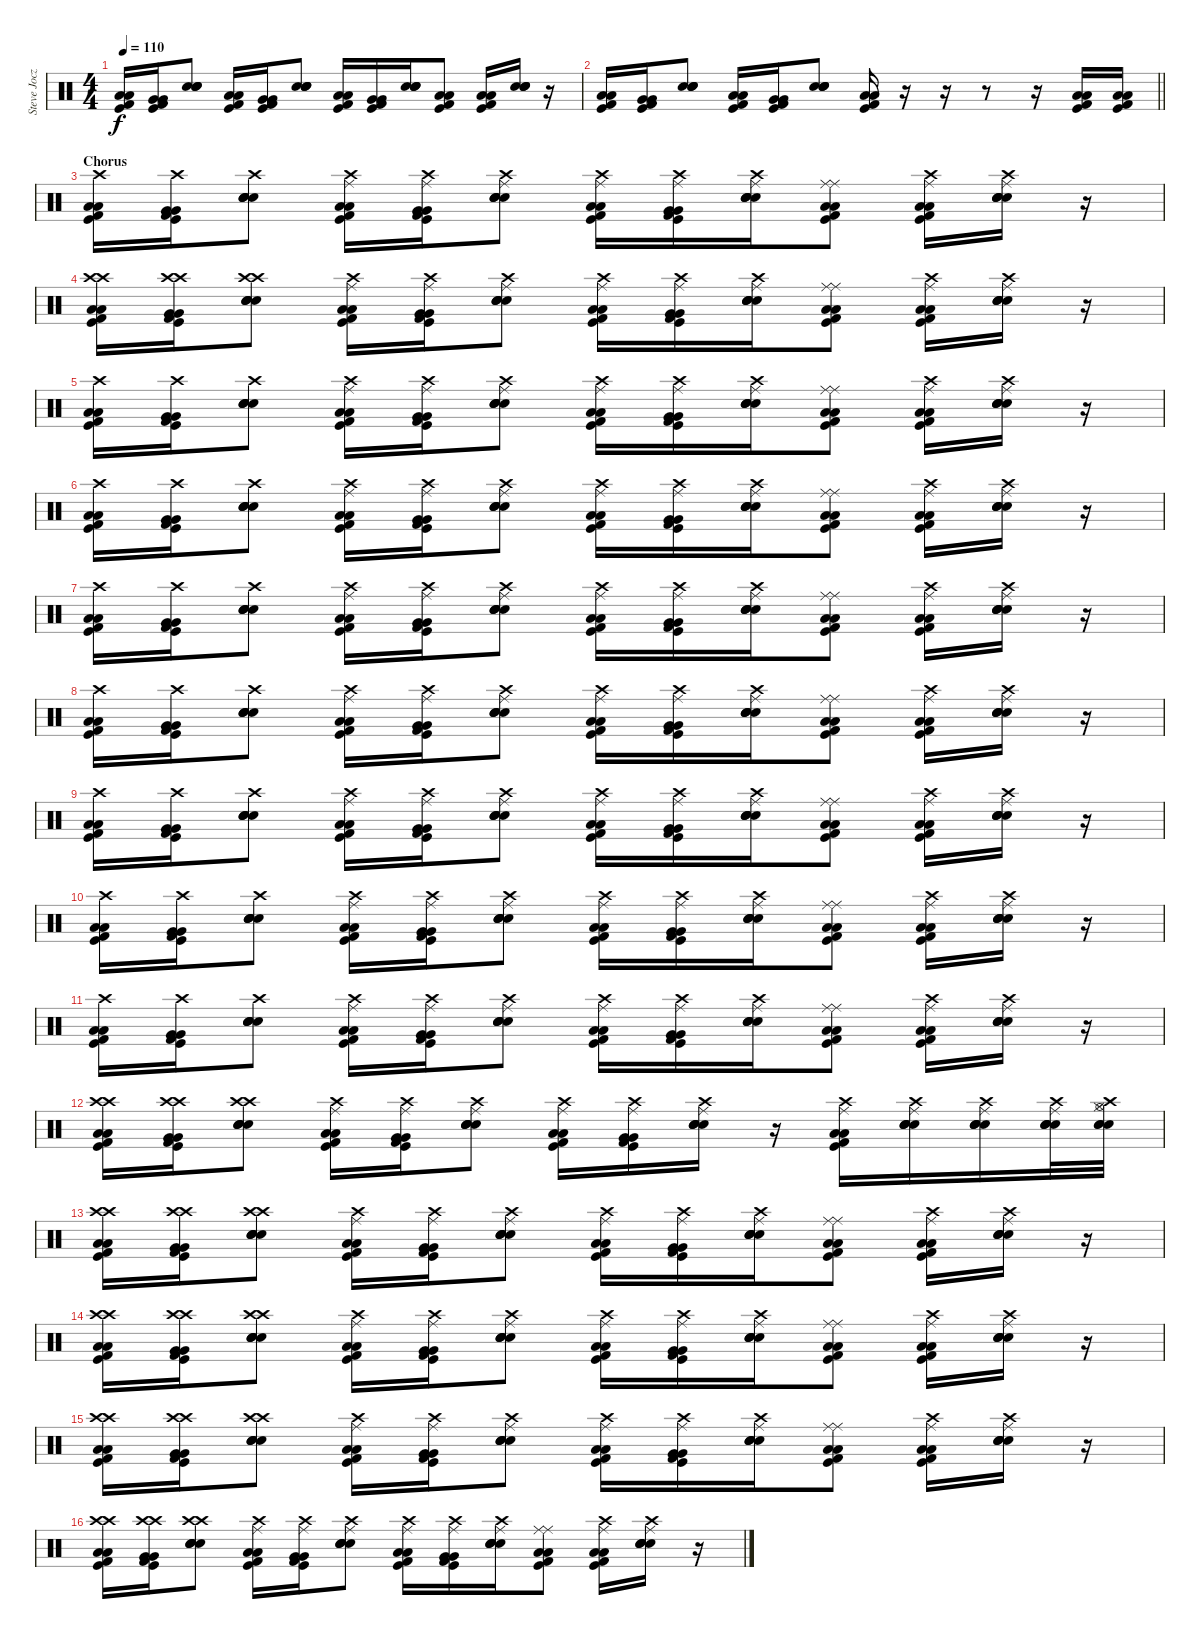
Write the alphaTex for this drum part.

\track ("Steve Jocz" "Steve Jocz") {instrument percussion}
\staff {score}
\articulation defaults
\ts (4 4)
\tempo 110
\clef neutral
\ks c
("Low Floor Tom (hit)" "Low Floor Tom (hit)" "Kick (hit)" "Kick (hit) 2").16{dy f} ("Very Low Tom (hit)" "Very Low Tom (hit)" "Kick (hit)" "Kick (hit) 2").16 ("Snare (hit) 2" "Snare (hit) 2" "Electric Snare (hit)" "Electric Snare (hit)").8 ("Low Floor Tom (hit)" "Low Floor Tom (hit)" "Kick (hit)" "Kick (hit) 2").16 ("Very Low Tom (hit)" "Very Low Tom (hit)" "Kick (hit)" "Kick (hit) 2").16 ("Snare (hit) 2" "Snare (hit) 2" "Electric Snare (hit)" "Electric Snare (hit)").8 ("Low Floor Tom (hit)" "Low Floor Tom (hit)" "Kick (hit)" "Kick (hit) 2").16 ("Very Low Tom (hit)" "Very Low Tom (hit)" "Kick (hit)" "Kick (hit) 2").16 ("Snare (hit) 2" "Snare (hit) 2" "Electric Snare (hit)" "Electric Snare (hit)").16 ("Low Floor Tom (hit)" "Low Floor Tom (hit)" "Kick (hit)" "Kick (hit) 2").8 ("Low Floor Tom (hit)" "Low Floor Tom (hit)" "Kick (hit)" "Kick (hit) 2").16 ("Snare (hit) 2" "Snare (hit) 2" "Electric Snare (hit)" "Electric Snare (hit)").16 r.16 |
\barLineRight lightlight
("Low Floor Tom (hit)" "Low Floor Tom (hit)" "Kick (hit)" "Kick (hit) 2").16 ("Very Low Tom (hit)" "Very Low Tom (hit)" "Kick (hit)" "Kick (hit) 2").16 ("Snare (hit) 2" "Snare (hit) 2" "Electric Snare (hit)" "Electric Snare (hit)").8 ("Low Floor Tom (hit)" "Low Floor Tom (hit)" "Kick (hit)" "Kick (hit) 2").16 ("Very Low Tom (hit)" "Very Low Tom (hit)" "Kick (hit)" "Kick (hit) 2").16 ("Snare (hit) 2" "Snare (hit) 2" "Electric Snare (hit)" "Electric Snare (hit)").8 ("Low Floor Tom (hit)" "Low Floor Tom (hit)" "Kick (hit)" "Kick (hit) 2").16 r.16 r.16 r.8 r.16 ("Low Floor Tom (hit)" "Low Floor Tom (hit)" "Kick (hit)" "Kick (hit) 2").16 ("Low Floor Tom (hit)" "Low Floor Tom (hit)" "Kick (hit)" "Kick (hit) 2").16 |
\section ("" "Chorus")
("Low Floor Tom (hit)" "Crash high (hit)" "Low Floor Tom (hit)" "Kick (hit)" "Kick (hit) 2").16 ("Very Low Tom (hit)" "Crash high (hit)" "Very Low Tom (hit)" "Kick (hit)" "Kick (hit) 2").16 ("Snare (hit) 2" "Crash high (hit)" "Snare (hit) 2" "Electric Snare (hit)" "Electric Snare (hit)").8 ("Low Floor Tom (hit)" "Ride (middle)" "Low Floor Tom (hit)" "Kick (hit)" "Crash high (hit)" "Kick (hit) 2").16 ("Very Low Tom (hit)" "Ride (middle)" "Very Low Tom (hit)" "Kick (hit)" "Crash high (hit)" "Kick (hit) 2").16 ("Snare (hit) 2" "Ride (middle)" "Snare (hit) 2" "Electric Snare (hit)" "Crash high (hit)" "Electric Snare (hit)").8 ("Low Floor Tom (hit)" "Ride (middle)" "Low Floor Tom (hit)" "Kick (hit)" "Crash high (hit)" "Kick (hit) 2").16 ("Very Low Tom (hit)" "Ride (middle)" "Very Low Tom (hit)" "Kick (hit)" "Crash high (hit)" "Kick (hit) 2").16 ("Snare (hit) 2" "Ride (middle)" "Snare (hit) 2" "Electric Snare (hit)" "Crash high (hit)" "Electric Snare (hit)").16 ("Low Floor Tom (hit)" "Ride (middle)" "Low Floor Tom (hit)" "Kick (hit)" "Ride (middle)" "Kick (hit) 2").8 ("Low Floor Tom (hit)" "Ride (middle)" "Low Floor Tom (hit)" "Kick (hit)" "Crash high (hit)" "Kick (hit) 2").16 ("Snare (hit) 2" "Ride (middle)" "Snare (hit) 2" "Electric Snare (hit)" "Crash high (hit)" "Electric Snare (hit)").16 r.16 |
("Low Floor Tom (hit)" "Crash high (hit)" "Low Floor Tom (hit)" "Kick (hit)" "Crash high (hit)" "Kick (hit) 2").16 ("Very Low Tom (hit)" "Crash high (hit)" "Very Low Tom (hit)" "Kick (hit)" "Crash high (hit)" "Kick (hit) 2").16 ("Snare (hit) 2" "Crash high (hit)" "Snare (hit) 2" "Electric Snare (hit)" "Crash high (hit)" "Electric Snare (hit)").8 ("Low Floor Tom (hit)" "Ride (middle)" "Low Floor Tom (hit)" "Kick (hit)" "Crash high (hit)" "Kick (hit) 2").16 ("Very Low Tom (hit)" "Ride (middle)" "Very Low Tom (hit)" "Kick (hit)" "Crash high (hit)" "Kick (hit) 2").16 ("Snare (hit) 2" "Ride (middle)" "Snare (hit) 2" "Electric Snare (hit)" "Crash high (hit)" "Electric Snare (hit)").8 ("Low Floor Tom (hit)" "Ride (middle)" "Low Floor Tom (hit)" "Kick (hit)" "Crash high (hit)" "Kick (hit) 2").16 ("Very Low Tom (hit)" "Ride (middle)" "Very Low Tom (hit)" "Kick (hit)" "Crash high (hit)" "Kick (hit) 2").16 ("Snare (hit) 2" "Ride (middle)" "Snare (hit) 2" "Electric Snare (hit)" "Crash high (hit)" "Electric Snare (hit)").16 ("Low Floor Tom (hit)" "Ride (middle)" "Low Floor Tom (hit)" "Kick (hit)" "Ride (middle)" "Kick (hit) 2").8 ("Low Floor Tom (hit)" "Ride (middle)" "Low Floor Tom (hit)" "Kick (hit)" "Crash high (hit)" "Kick (hit) 2").16 ("Snare (hit) 2" "Ride (middle)" "Snare (hit) 2" "Electric Snare (hit)" "Crash high (hit)" "Electric Snare (hit)").16 r.16 |
("Low Floor Tom (hit)" "Crash high (hit)" "Low Floor Tom (hit)" "Kick (hit)" "Kick (hit) 2").16 ("Very Low Tom (hit)" "Crash high (hit)" "Very Low Tom (hit)" "Kick (hit)" "Kick (hit) 2").16 ("Snare (hit) 2" "Crash high (hit)" "Snare (hit) 2" "Electric Snare (hit)" "Electric Snare (hit)").8 ("Low Floor Tom (hit)" "Ride (middle)" "Low Floor Tom (hit)" "Kick (hit)" "Crash high (hit)" "Kick (hit) 2").16 ("Very Low Tom (hit)" "Ride (middle)" "Very Low Tom (hit)" "Kick (hit)" "Crash high (hit)" "Kick (hit) 2").16 ("Snare (hit) 2" "Ride (middle)" "Snare (hit) 2" "Electric Snare (hit)" "Crash high (hit)" "Electric Snare (hit)").8 ("Low Floor Tom (hit)" "Ride (middle)" "Low Floor Tom (hit)" "Kick (hit)" "Crash high (hit)" "Kick (hit) 2").16 ("Very Low Tom (hit)" "Ride (middle)" "Very Low Tom (hit)" "Kick (hit)" "Crash high (hit)" "Kick (hit) 2").16 ("Snare (hit) 2" "Ride (middle)" "Snare (hit) 2" "Electric Snare (hit)" "Crash high (hit)" "Electric Snare (hit)").16 ("Low Floor Tom (hit)" "Ride (middle)" "Low Floor Tom (hit)" "Kick (hit)" "Ride (middle)" "Kick (hit) 2").8 ("Low Floor Tom (hit)" "Ride (middle)" "Low Floor Tom (hit)" "Kick (hit)" "Crash high (hit)" "Kick (hit) 2").16 ("Snare (hit) 2" "Ride (middle)" "Snare (hit) 2" "Electric Snare (hit)" "Crash high (hit)" "Electric Snare (hit)").16 r.16 |
("Low Floor Tom (hit)" "Crash high (hit)" "Low Floor Tom (hit)" "Kick (hit)" "Kick (hit) 2").16 ("Very Low Tom (hit)" "Crash high (hit)" "Very Low Tom (hit)" "Kick (hit)" "Kick (hit) 2").16 ("Snare (hit) 2" "Crash high (hit)" "Snare (hit) 2" "Electric Snare (hit)" "Electric Snare (hit)").8 ("Low Floor Tom (hit)" "Ride (middle)" "Low Floor Tom (hit)" "Kick (hit)" "Crash high (hit)" "Kick (hit) 2").16 ("Very Low Tom (hit)" "Ride (middle)" "Very Low Tom (hit)" "Kick (hit)" "Crash high (hit)" "Kick (hit) 2").16 ("Snare (hit) 2" "Ride (middle)" "Snare (hit) 2" "Electric Snare (hit)" "Crash high (hit)" "Electric Snare (hit)").8 ("Low Floor Tom (hit)" "Ride (middle)" "Low Floor Tom (hit)" "Kick (hit)" "Crash high (hit)" "Kick (hit) 2").16 ("Very Low Tom (hit)" "Ride (middle)" "Very Low Tom (hit)" "Kick (hit)" "Crash high (hit)" "Kick (hit) 2").16 ("Snare (hit) 2" "Ride (middle)" "Snare (hit) 2" "Electric Snare (hit)" "Crash high (hit)" "Electric Snare (hit)").16 ("Low Floor Tom (hit)" "Ride (middle)" "Low Floor Tom (hit)" "Kick (hit)" "Ride (middle)" "Kick (hit) 2").8 ("Low Floor Tom (hit)" "Ride (middle)" "Low Floor Tom (hit)" "Kick (hit)" "Crash high (hit)" "Kick (hit) 2").16 ("Snare (hit) 2" "Ride (middle)" "Snare (hit) 2" "Electric Snare (hit)" "Crash high (hit)" "Electric Snare (hit)").16 r.16 |
("Low Floor Tom (hit)" "Crash high (hit)" "Low Floor Tom (hit)" "Kick (hit)" "Kick (hit) 2").16 ("Very Low Tom (hit)" "Crash high (hit)" "Very Low Tom (hit)" "Kick (hit)" "Kick (hit) 2").16 ("Snare (hit) 2" "Crash high (hit)" "Snare (hit) 2" "Electric Snare (hit)" "Electric Snare (hit)").8 ("Low Floor Tom (hit)" "Ride (middle)" "Low Floor Tom (hit)" "Kick (hit)" "Crash high (hit)" "Kick (hit) 2").16 ("Very Low Tom (hit)" "Ride (middle)" "Very Low Tom (hit)" "Kick (hit)" "Crash high (hit)" "Kick (hit) 2").16 ("Snare (hit) 2" "Ride (middle)" "Snare (hit) 2" "Electric Snare (hit)" "Crash high (hit)" "Electric Snare (hit)").8 ("Low Floor Tom (hit)" "Ride (middle)" "Low Floor Tom (hit)" "Kick (hit)" "Crash high (hit)" "Kick (hit) 2").16 ("Very Low Tom (hit)" "Ride (middle)" "Very Low Tom (hit)" "Kick (hit)" "Crash high (hit)" "Kick (hit) 2").16 ("Snare (hit) 2" "Ride (middle)" "Snare (hit) 2" "Electric Snare (hit)" "Crash high (hit)" "Electric Snare (hit)").16 ("Low Floor Tom (hit)" "Ride (middle)" "Low Floor Tom (hit)" "Kick (hit)" "Ride (middle)" "Kick (hit) 2").8 ("Low Floor Tom (hit)" "Ride (middle)" "Low Floor Tom (hit)" "Kick (hit)" "Crash high (hit)" "Kick (hit) 2").16 ("Snare (hit) 2" "Ride (middle)" "Snare (hit) 2" "Electric Snare (hit)" "Crash high (hit)" "Electric Snare (hit)").16 r.16 |
("Low Floor Tom (hit)" "Crash high (hit)" "Low Floor Tom (hit)" "Kick (hit)" "Kick (hit) 2").16 ("Very Low Tom (hit)" "Crash high (hit)" "Very Low Tom (hit)" "Kick (hit)" "Kick (hit) 2").16 ("Snare (hit) 2" "Crash high (hit)" "Snare (hit) 2" "Electric Snare (hit)" "Electric Snare (hit)").8 ("Low Floor Tom (hit)" "Ride (middle)" "Low Floor Tom (hit)" "Kick (hit)" "Crash high (hit)" "Kick (hit) 2").16 ("Very Low Tom (hit)" "Ride (middle)" "Very Low Tom (hit)" "Kick (hit)" "Crash high (hit)" "Kick (hit) 2").16 ("Snare (hit) 2" "Ride (middle)" "Snare (hit) 2" "Electric Snare (hit)" "Crash high (hit)" "Electric Snare (hit)").8 ("Low Floor Tom (hit)" "Ride (middle)" "Low Floor Tom (hit)" "Kick (hit)" "Crash high (hit)" "Kick (hit) 2").16 ("Very Low Tom (hit)" "Ride (middle)" "Very Low Tom (hit)" "Kick (hit)" "Crash high (hit)" "Kick (hit) 2").16 ("Snare (hit) 2" "Ride (middle)" "Snare (hit) 2" "Electric Snare (hit)" "Crash high (hit)" "Electric Snare (hit)").16 ("Low Floor Tom (hit)" "Ride (middle)" "Low Floor Tom (hit)" "Kick (hit)" "Ride (middle)" "Kick (hit) 2").8 ("Low Floor Tom (hit)" "Ride (middle)" "Low Floor Tom (hit)" "Kick (hit)" "Crash high (hit)" "Kick (hit) 2").16 ("Snare (hit) 2" "Ride (middle)" "Snare (hit) 2" "Electric Snare (hit)" "Crash high (hit)" "Electric Snare (hit)").16 r.16 |
("Low Floor Tom (hit)" "Crash high (hit)" "Low Floor Tom (hit)" "Kick (hit)" "Kick (hit) 2").16 ("Very Low Tom (hit)" "Crash high (hit)" "Very Low Tom (hit)" "Kick (hit)" "Kick (hit) 2").16 ("Snare (hit) 2" "Crash high (hit)" "Snare (hit) 2" "Electric Snare (hit)" "Electric Snare (hit)").8 ("Low Floor Tom (hit)" "Ride (middle)" "Low Floor Tom (hit)" "Kick (hit)" "Crash high (hit)" "Kick (hit) 2").16 ("Very Low Tom (hit)" "Ride (middle)" "Very Low Tom (hit)" "Kick (hit)" "Crash high (hit)" "Kick (hit) 2").16 ("Snare (hit) 2" "Ride (middle)" "Snare (hit) 2" "Electric Snare (hit)" "Crash high (hit)" "Electric Snare (hit)").8 ("Low Floor Tom (hit)" "Ride (middle)" "Low Floor Tom (hit)" "Kick (hit)" "Crash high (hit)" "Kick (hit) 2").16 ("Very Low Tom (hit)" "Ride (middle)" "Very Low Tom (hit)" "Kick (hit)" "Crash high (hit)" "Kick (hit) 2").16 ("Snare (hit) 2" "Ride (middle)" "Snare (hit) 2" "Electric Snare (hit)" "Crash high (hit)" "Electric Snare (hit)").16 ("Low Floor Tom (hit)" "Ride (middle)" "Low Floor Tom (hit)" "Kick (hit)" "Ride (middle)" "Kick (hit) 2").8 ("Low Floor Tom (hit)" "Ride (middle)" "Low Floor Tom (hit)" "Kick (hit)" "Crash high (hit)" "Kick (hit) 2").16 ("Snare (hit) 2" "Ride (middle)" "Snare (hit) 2" "Electric Snare (hit)" "Crash high (hit)" "Electric Snare (hit)").16 r.16 |
("Low Floor Tom (hit)" "Crash high (hit)" "Low Floor Tom (hit)" "Kick (hit)" "Kick (hit) 2").16 ("Very Low Tom (hit)" "Crash high (hit)" "Very Low Tom (hit)" "Kick (hit)" "Kick (hit) 2").16 ("Snare (hit) 2" "Crash high (hit)" "Snare (hit) 2" "Electric Snare (hit)" "Electric Snare (hit)").8 ("Low Floor Tom (hit)" "Ride (middle)" "Low Floor Tom (hit)" "Kick (hit)" "Crash high (hit)" "Kick (hit) 2").16 ("Very Low Tom (hit)" "Ride (middle)" "Very Low Tom (hit)" "Kick (hit)" "Crash high (hit)" "Kick (hit) 2").16 ("Snare (hit) 2" "Ride (middle)" "Snare (hit) 2" "Electric Snare (hit)" "Crash high (hit)" "Electric Snare (hit)").8 ("Low Floor Tom (hit)" "Ride (middle)" "Low Floor Tom (hit)" "Kick (hit)" "Crash high (hit)" "Kick (hit) 2").16 ("Very Low Tom (hit)" "Ride (middle)" "Very Low Tom (hit)" "Kick (hit)" "Crash high (hit)" "Kick (hit) 2").16 ("Snare (hit) 2" "Ride (middle)" "Snare (hit) 2" "Electric Snare (hit)" "Crash high (hit)" "Electric Snare (hit)").16 ("Low Floor Tom (hit)" "Ride (middle)" "Low Floor Tom (hit)" "Kick (hit)" "Ride (middle)" "Kick (hit) 2").8 ("Low Floor Tom (hit)" "Ride (middle)" "Low Floor Tom (hit)" "Kick (hit)" "Crash high (hit)" "Kick (hit) 2").16 ("Snare (hit) 2" "Ride (middle)" "Snare (hit) 2" "Electric Snare (hit)" "Crash high (hit)" "Electric Snare (hit)").16 r.16 |
("Low Floor Tom (hit)" "Crash high (hit)" "Low Floor Tom (hit)" "Kick (hit)" "Kick (hit) 2").16 ("Very Low Tom (hit)" "Crash high (hit)" "Very Low Tom (hit)" "Kick (hit)" "Kick (hit) 2").16 ("Snare (hit) 2" "Crash high (hit)" "Snare (hit) 2" "Electric Snare (hit)" "Electric Snare (hit)").8 ("Low Floor Tom (hit)" "Ride (middle)" "Low Floor Tom (hit)" "Kick (hit)" "Crash high (hit)" "Kick (hit) 2").16 ("Very Low Tom (hit)" "Ride (middle)" "Very Low Tom (hit)" "Kick (hit)" "Crash high (hit)" "Kick (hit) 2").16 ("Snare (hit) 2" "Ride (middle)" "Snare (hit) 2" "Electric Snare (hit)" "Crash high (hit)" "Electric Snare (hit)").8 ("Low Floor Tom (hit)" "Ride (middle)" "Low Floor Tom (hit)" "Kick (hit)" "Crash high (hit)" "Kick (hit) 2").16 ("Very Low Tom (hit)" "Ride (middle)" "Very Low Tom (hit)" "Kick (hit)" "Crash high (hit)" "Kick (hit) 2").16 ("Snare (hit) 2" "Ride (middle)" "Snare (hit) 2" "Electric Snare (hit)" "Crash high (hit)" "Electric Snare (hit)").16 ("Low Floor Tom (hit)" "Ride (middle)" "Low Floor Tom (hit)" "Kick (hit)" "Ride (middle)" "Kick (hit) 2").8 ("Low Floor Tom (hit)" "Ride (middle)" "Low Floor Tom (hit)" "Kick (hit)" "Crash high (hit)" "Kick (hit) 2").16 ("Snare (hit) 2" "Ride (middle)" "Snare (hit) 2" "Electric Snare (hit)" "Crash high (hit)" "Electric Snare (hit)").16 r.16 |
("Low Floor Tom (hit)" "Crash high (hit)" "Low Floor Tom (hit)" "Kick (hit)" "Crash high (hit)" "Kick (hit) 2").16 ("Very Low Tom (hit)" "Crash high (hit)" "Very Low Tom (hit)" "Kick (hit)" "Crash high (hit)" "Kick (hit) 2").16 ("Snare (hit) 2" "Crash high (hit)" "Snare (hit) 2" "Electric Snare (hit)" "Crash high (hit)" "Electric Snare (hit)").8 ("Low Floor Tom (hit)" "Ride (middle)" "Low Floor Tom (hit)" "Kick (hit)" "Crash high (hit)" "Kick (hit) 2").16 ("Very Low Tom (hit)" "Ride (middle)" "Very Low Tom (hit)" "Kick (hit)" "Crash high (hit)" "Kick (hit) 2").16 ("Snare (hit) 2" "Ride (middle)" "Snare (hit) 2" "Electric Snare (hit)" "Crash high (hit)" "Electric Snare (hit)").8 ("Low Floor Tom (hit)" "Ride (middle)" "Low Floor Tom (hit)" "Kick (hit)" "Crash high (hit)" "Kick (hit) 2").16 ("Very Low Tom (hit)" "Ride (middle)" "Very Low Tom (hit)" "Kick (hit)" "Crash high (hit)" "Kick (hit) 2").16 ("Snare (hit) 2" "Ride (middle)" "Snare (hit) 2" "Electric Snare (hit)" "Crash high (hit)" "Electric Snare (hit)").16 r.16 ("Low Floor Tom (hit)" "Ride (middle)" "Low Floor Tom (hit)" "Kick (hit)" "Crash high (hit)" "Kick (hit) 2").16 ("Snare (hit) 2" "Ride (middle)" "Snare (hit) 2" "Electric Snare (hit)" "Crash high (hit)" "Electric Snare (hit)").16 ("Snare (hit) 2" "Ride (middle)" "Snare (hit) 2" "Electric Snare (hit)" "Crash high (hit)" "Electric Snare (hit)").16 ("Snare (hit) 2" "Ride (middle)" "Snare (hit) 2" "Electric Snare (hit)" "Crash high (hit)" "Electric Snare (hit)").32 ("Snare (hit) 2" "Snare (hit) 2" "Electric Snare (hit)" "Crash high (hit)" "Hi-Hat (open)" "Hi-Hat (closed)").32 |
("Low Floor Tom (hit)" "Crash high (hit)" "Low Floor Tom (hit)" "Kick (hit)" "Crash high (hit)" "Kick (hit) 2").16 ("Very Low Tom (hit)" "Crash high (hit)" "Very Low Tom (hit)" "Kick (hit)" "Crash high (hit)" "Kick (hit) 2").16 ("Snare (hit) 2" "Crash high (hit)" "Snare (hit) 2" "Electric Snare (hit)" "Crash high (hit)" "Electric Snare (hit)").8 ("Low Floor Tom (hit)" "Ride (middle)" "Low Floor Tom (hit)" "Kick (hit)" "Crash high (hit)" "Kick (hit) 2").16 ("Very Low Tom (hit)" "Ride (middle)" "Very Low Tom (hit)" "Kick (hit)" "Crash high (hit)" "Kick (hit) 2").16 ("Snare (hit) 2" "Ride (middle)" "Snare (hit) 2" "Electric Snare (hit)" "Crash high (hit)" "Electric Snare (hit)").8 ("Low Floor Tom (hit)" "Ride (middle)" "Low Floor Tom (hit)" "Kick (hit)" "Crash high (hit)" "Kick (hit) 2").16 ("Very Low Tom (hit)" "Ride (middle)" "Very Low Tom (hit)" "Kick (hit)" "Crash high (hit)" "Kick (hit) 2").16 ("Snare (hit) 2" "Ride (middle)" "Snare (hit) 2" "Electric Snare (hit)" "Crash high (hit)" "Electric Snare (hit)").16 ("Low Floor Tom (hit)" "Ride (middle)" "Low Floor Tom (hit)" "Kick (hit)" "Ride (middle)" "Kick (hit) 2").8 ("Low Floor Tom (hit)" "Ride (middle)" "Low Floor Tom (hit)" "Kick (hit)" "Crash high (hit)" "Kick (hit) 2").16 ("Snare (hit) 2" "Ride (middle)" "Snare (hit) 2" "Electric Snare (hit)" "Crash high (hit)" "Electric Snare (hit)").16 r.16 |
("Low Floor Tom (hit)" "Crash high (hit)" "Low Floor Tom (hit)" "Kick (hit)" "Crash high (hit)" "Kick (hit) 2").16 ("Very Low Tom (hit)" "Crash high (hit)" "Very Low Tom (hit)" "Kick (hit)" "Crash high (hit)" "Kick (hit) 2").16 ("Snare (hit) 2" "Crash high (hit)" "Snare (hit) 2" "Electric Snare (hit)" "Crash high (hit)" "Electric Snare (hit)").8 ("Low Floor Tom (hit)" "Ride (middle)" "Low Floor Tom (hit)" "Kick (hit)" "Crash high (hit)" "Kick (hit) 2").16 ("Very Low Tom (hit)" "Ride (middle)" "Very Low Tom (hit)" "Kick (hit)" "Crash high (hit)" "Kick (hit) 2").16 ("Snare (hit) 2" "Ride (middle)" "Snare (hit) 2" "Electric Snare (hit)" "Crash high (hit)" "Electric Snare (hit)").8 ("Low Floor Tom (hit)" "Ride (middle)" "Low Floor Tom (hit)" "Kick (hit)" "Crash high (hit)" "Kick (hit) 2").16 ("Very Low Tom (hit)" "Ride (middle)" "Very Low Tom (hit)" "Kick (hit)" "Crash high (hit)" "Kick (hit) 2").16 ("Snare (hit) 2" "Ride (middle)" "Snare (hit) 2" "Electric Snare (hit)" "Crash high (hit)" "Electric Snare (hit)").16 ("Low Floor Tom (hit)" "Ride (middle)" "Low Floor Tom (hit)" "Kick (hit)" "Ride (middle)" "Kick (hit) 2").8 ("Low Floor Tom (hit)" "Ride (middle)" "Low Floor Tom (hit)" "Kick (hit)" "Crash high (hit)" "Kick (hit) 2").16 ("Snare (hit) 2" "Ride (middle)" "Snare (hit) 2" "Electric Snare (hit)" "Crash high (hit)" "Electric Snare (hit)").16 r.16 |
("Low Floor Tom (hit)" "Crash high (hit)" "Low Floor Tom (hit)" "Kick (hit)" "Crash high (hit)" "Kick (hit) 2").16 ("Very Low Tom (hit)" "Crash high (hit)" "Very Low Tom (hit)" "Kick (hit)" "Crash high (hit)" "Kick (hit) 2").16 ("Snare (hit) 2" "Crash high (hit)" "Snare (hit) 2" "Electric Snare (hit)" "Crash high (hit)" "Electric Snare (hit)").8 ("Low Floor Tom (hit)" "Ride (middle)" "Low Floor Tom (hit)" "Kick (hit)" "Crash high (hit)" "Kick (hit) 2").16 ("Very Low Tom (hit)" "Ride (middle)" "Very Low Tom (hit)" "Kick (hit)" "Crash high (hit)" "Kick (hit) 2").16 ("Snare (hit) 2" "Ride (middle)" "Snare (hit) 2" "Electric Snare (hit)" "Crash high (hit)" "Electric Snare (hit)").8 ("Low Floor Tom (hit)" "Ride (middle)" "Low Floor Tom (hit)" "Kick (hit)" "Crash high (hit)" "Kick (hit) 2").16 ("Very Low Tom (hit)" "Ride (middle)" "Very Low Tom (hit)" "Kick (hit)" "Crash high (hit)" "Kick (hit) 2").16 ("Snare (hit) 2" "Ride (middle)" "Snare (hit) 2" "Electric Snare (hit)" "Crash high (hit)" "Electric Snare (hit)").16 ("Low Floor Tom (hit)" "Ride (middle)" "Low Floor Tom (hit)" "Kick (hit)" "Ride (middle)" "Kick (hit) 2").8 ("Low Floor Tom (hit)" "Ride (middle)" "Low Floor Tom (hit)" "Kick (hit)" "Crash high (hit)" "Kick (hit) 2").16 ("Snare (hit) 2" "Ride (middle)" "Snare (hit) 2" "Electric Snare (hit)" "Crash high (hit)" "Electric Snare (hit)").16 r.16 |
("Low Floor Tom (hit)" "Crash high (hit)" "Low Floor Tom (hit)" "Kick (hit)" "Crash high (hit)" "Kick (hit) 2").16 ("Very Low Tom (hit)" "Crash high (hit)" "Very Low Tom (hit)" "Kick (hit)" "Crash high (hit)" "Kick (hit) 2").16 ("Snare (hit) 2" "Crash high (hit)" "Snare (hit) 2" "Electric Snare (hit)" "Crash high (hit)" "Electric Snare (hit)").8 ("Low Floor Tom (hit)" "Ride (middle)" "Low Floor Tom (hit)" "Kick (hit)" "Crash high (hit)" "Kick (hit) 2").16 ("Very Low Tom (hit)" "Ride (middle)" "Very Low Tom (hit)" "Kick (hit)" "Crash high (hit)" "Kick (hit) 2").16 ("Snare (hit) 2" "Ride (middle)" "Snare (hit) 2" "Electric Snare (hit)" "Crash high (hit)" "Electric Snare (hit)").8 ("Low Floor Tom (hit)" "Ride (middle)" "Low Floor Tom (hit)" "Kick (hit)" "Crash high (hit)" "Kick (hit) 2").16 ("Very Low Tom (hit)" "Ride (middle)" "Very Low Tom (hit)" "Kick (hit)" "Crash high (hit)" "Kick (hit) 2").16 ("Snare (hit) 2" "Ride (middle)" "Snare (hit) 2" "Electric Snare (hit)" "Crash high (hit)" "Electric Snare (hit)").16 ("Low Floor Tom (hit)" "Ride (middle)" "Low Floor Tom (hit)" "Kick (hit)" "Ride (middle)" "Kick (hit) 2").8 ("Low Floor Tom (hit)" "Ride (middle)" "Low Floor Tom (hit)" "Kick (hit)" "Crash high (hit)" "Kick (hit) 2").16 ("Snare (hit) 2" "Ride (middle)" "Snare (hit) 2" "Electric Snare (hit)" "Crash high (hit)" "Electric Snare (hit)").16 r.16
